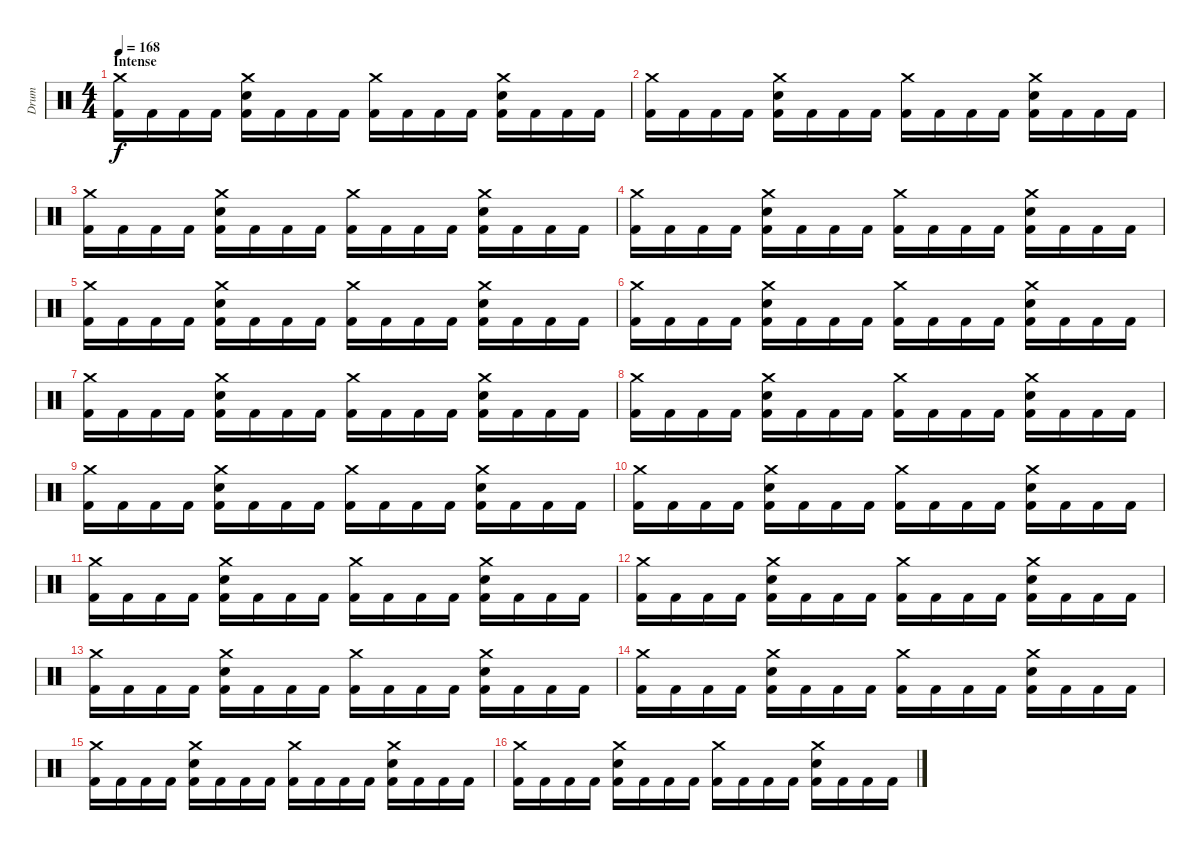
\track ("Drum" "Drum") {instrument percussion}
\staff {score}
\articulation defaults
\ts (4 4)
\section ("" "Intense")
\tempo 168
\clef neutral
\ks c
("Crash medium (hit)" "Kick (hit) 2").16{dy f} "Kick (hit) 2".16 "Kick (hit) 2".16 "Kick (hit) 2".16 ("Crash medium (hit)" "Electric Snare (hit)" "Kick (hit) 2").16 "Kick (hit) 2".16 "Kick (hit) 2".16 "Kick (hit) 2".16 ("Crash medium (hit)" "Kick (hit) 2").16 "Kick (hit) 2".16 "Kick (hit) 2".16 "Kick (hit) 2".16 ("Crash medium (hit)" "Electric Snare (hit)" "Kick (hit) 2").16 "Kick (hit) 2".16 "Kick (hit) 2".16 "Kick (hit) 2".16 |
("Crash medium (hit)" "Kick (hit) 2").16 "Kick (hit) 2".16 "Kick (hit) 2".16 "Kick (hit) 2".16 ("Crash medium (hit)" "Electric Snare (hit)" "Kick (hit) 2").16 "Kick (hit) 2".16 "Kick (hit) 2".16 "Kick (hit) 2".16 ("Crash medium (hit)" "Kick (hit) 2").16 "Kick (hit) 2".16 "Kick (hit) 2".16 "Kick (hit) 2".16 ("Crash medium (hit)" "Electric Snare (hit)" "Kick (hit) 2").16 "Kick (hit) 2".16 "Kick (hit) 2".16 "Kick (hit) 2".16 |
("Crash medium (hit)" "Kick (hit) 2").16 "Kick (hit) 2".16 "Kick (hit) 2".16 "Kick (hit) 2".16 ("Crash medium (hit)" "Electric Snare (hit)" "Kick (hit) 2").16 "Kick (hit) 2".16 "Kick (hit) 2".16 "Kick (hit) 2".16 ("Crash medium (hit)" "Kick (hit) 2").16 "Kick (hit) 2".16 "Kick (hit) 2".16 "Kick (hit) 2".16 ("Crash medium (hit)" "Electric Snare (hit)" "Kick (hit) 2").16 "Kick (hit) 2".16 "Kick (hit) 2".16 "Kick (hit) 2".16 |
("Crash medium (hit)" "Kick (hit) 2").16 "Kick (hit) 2".16 "Kick (hit) 2".16 "Kick (hit) 2".16 ("Crash medium (hit)" "Electric Snare (hit)" "Kick (hit) 2").16 "Kick (hit) 2".16 "Kick (hit) 2".16 "Kick (hit) 2".16 ("Crash medium (hit)" "Kick (hit) 2").16 "Kick (hit) 2".16 "Kick (hit) 2".16 "Kick (hit) 2".16 ("Crash medium (hit)" "Electric Snare (hit)" "Kick (hit) 2").16 "Kick (hit) 2".16 "Kick (hit) 2".16 "Kick (hit) 2".16 |
("Crash medium (hit)" "Kick (hit) 2").16 "Kick (hit) 2".16 "Kick (hit) 2".16 "Kick (hit) 2".16 ("Crash medium (hit)" "Electric Snare (hit)" "Kick (hit) 2").16 "Kick (hit) 2".16 "Kick (hit) 2".16 "Kick (hit) 2".16 ("Crash medium (hit)" "Kick (hit) 2").16 "Kick (hit) 2".16 "Kick (hit) 2".16 "Kick (hit) 2".16 ("Crash medium (hit)" "Electric Snare (hit)" "Kick (hit) 2").16 "Kick (hit) 2".16 "Kick (hit) 2".16 "Kick (hit) 2".16 |
("Crash medium (hit)" "Kick (hit) 2").16 "Kick (hit) 2".16 "Kick (hit) 2".16 "Kick (hit) 2".16 ("Crash medium (hit)" "Electric Snare (hit)" "Kick (hit) 2").16 "Kick (hit) 2".16 "Kick (hit) 2".16 "Kick (hit) 2".16 ("Crash medium (hit)" "Kick (hit) 2").16 "Kick (hit) 2".16 "Kick (hit) 2".16 "Kick (hit) 2".16 ("Crash medium (hit)" "Electric Snare (hit)" "Kick (hit) 2").16 "Kick (hit) 2".16 "Kick (hit) 2".16 "Kick (hit) 2".16 |
("Crash medium (hit)" "Kick (hit) 2").16 "Kick (hit) 2".16 "Kick (hit) 2".16 "Kick (hit) 2".16 ("Crash medium (hit)" "Electric Snare (hit)" "Kick (hit) 2").16 "Kick (hit) 2".16 "Kick (hit) 2".16 "Kick (hit) 2".16 ("Crash medium (hit)" "Kick (hit) 2").16 "Kick (hit) 2".16 "Kick (hit) 2".16 "Kick (hit) 2".16 ("Crash medium (hit)" "Electric Snare (hit)" "Kick (hit) 2").16 "Kick (hit) 2".16 "Kick (hit) 2".16 "Kick (hit) 2".16 |
("Crash medium (hit)" "Kick (hit) 2").16 "Kick (hit) 2".16 "Kick (hit) 2".16 "Kick (hit) 2".16 ("Crash medium (hit)" "Electric Snare (hit)" "Kick (hit) 2").16 "Kick (hit) 2".16 "Kick (hit) 2".16 "Kick (hit) 2".16 ("Crash medium (hit)" "Kick (hit) 2").16 "Kick (hit) 2".16 "Kick (hit) 2".16 "Kick (hit) 2".16 ("Crash medium (hit)" "Electric Snare (hit)" "Kick (hit) 2").16 "Kick (hit) 2".16 "Kick (hit) 2".16 "Kick (hit) 2".16 |
("Crash medium (hit)" "Kick (hit) 2").16 "Kick (hit) 2".16 "Kick (hit) 2".16 "Kick (hit) 2".16 ("Crash medium (hit)" "Electric Snare (hit)" "Kick (hit) 2").16 "Kick (hit) 2".16 "Kick (hit) 2".16 "Kick (hit) 2".16 ("Crash medium (hit)" "Kick (hit) 2").16 "Kick (hit) 2".16 "Kick (hit) 2".16 "Kick (hit) 2".16 ("Crash medium (hit)" "Electric Snare (hit)" "Kick (hit) 2").16 "Kick (hit) 2".16 "Kick (hit) 2".16 "Kick (hit) 2".16 |
("Crash medium (hit)" "Kick (hit) 2").16 "Kick (hit) 2".16 "Kick (hit) 2".16 "Kick (hit) 2".16 ("Crash medium (hit)" "Electric Snare (hit)" "Kick (hit) 2").16 "Kick (hit) 2".16 "Kick (hit) 2".16 "Kick (hit) 2".16 ("Crash medium (hit)" "Kick (hit) 2").16 "Kick (hit) 2".16 "Kick (hit) 2".16 "Kick (hit) 2".16 ("Crash medium (hit)" "Electric Snare (hit)" "Kick (hit) 2").16 "Kick (hit) 2".16 "Kick (hit) 2".16 "Kick (hit) 2".16 |
("Crash medium (hit)" "Kick (hit) 2").16 "Kick (hit) 2".16 "Kick (hit) 2".16 "Kick (hit) 2".16 ("Crash medium (hit)" "Electric Snare (hit)" "Kick (hit) 2").16 "Kick (hit) 2".16 "Kick (hit) 2".16 "Kick (hit) 2".16 ("Crash medium (hit)" "Kick (hit) 2").16 "Kick (hit) 2".16 "Kick (hit) 2".16 "Kick (hit) 2".16 ("Crash medium (hit)" "Electric Snare (hit)" "Kick (hit) 2").16 "Kick (hit) 2".16 "Kick (hit) 2".16 "Kick (hit) 2".16 |
("Crash medium (hit)" "Kick (hit) 2").16 "Kick (hit) 2".16 "Kick (hit) 2".16 "Kick (hit) 2".16 ("Crash medium (hit)" "Electric Snare (hit)" "Kick (hit) 2").16 "Kick (hit) 2".16 "Kick (hit) 2".16 "Kick (hit) 2".16 ("Crash medium (hit)" "Kick (hit) 2").16 "Kick (hit) 2".16 "Kick (hit) 2".16 "Kick (hit) 2".16 ("Crash medium (hit)" "Electric Snare (hit)" "Kick (hit) 2").16 "Kick (hit) 2".16 "Kick (hit) 2".16 "Kick (hit) 2".16 |
("Crash medium (hit)" "Kick (hit) 2").16 "Kick (hit) 2".16 "Kick (hit) 2".16 "Kick (hit) 2".16 ("Crash medium (hit)" "Electric Snare (hit)" "Kick (hit) 2").16 "Kick (hit) 2".16 "Kick (hit) 2".16 "Kick (hit) 2".16 ("Crash medium (hit)" "Kick (hit) 2").16 "Kick (hit) 2".16 "Kick (hit) 2".16 "Kick (hit) 2".16 ("Crash medium (hit)" "Electric Snare (hit)" "Kick (hit) 2").16 "Kick (hit) 2".16 "Kick (hit) 2".16 "Kick (hit) 2".16 |
("Crash medium (hit)" "Kick (hit) 2").16 "Kick (hit) 2".16 "Kick (hit) 2".16 "Kick (hit) 2".16 ("Crash medium (hit)" "Electric Snare (hit)" "Kick (hit) 2").16 "Kick (hit) 2".16 "Kick (hit) 2".16 "Kick (hit) 2".16 ("Crash medium (hit)" "Kick (hit) 2").16 "Kick (hit) 2".16 "Kick (hit) 2".16 "Kick (hit) 2".16 ("Crash medium (hit)" "Electric Snare (hit)" "Kick (hit) 2").16 "Kick (hit) 2".16 "Kick (hit) 2".16 "Kick (hit) 2".16 |
("Crash medium (hit)" "Kick (hit) 2").16 "Kick (hit) 2".16 "Kick (hit) 2".16 "Kick (hit) 2".16 ("Crash medium (hit)" "Electric Snare (hit)" "Kick (hit) 2").16 "Kick (hit) 2".16 "Kick (hit) 2".16 "Kick (hit) 2".16 ("Crash medium (hit)" "Kick (hit) 2").16 "Kick (hit) 2".16 "Kick (hit) 2".16 "Kick (hit) 2".16 ("Crash medium (hit)" "Electric Snare (hit)" "Kick (hit) 2").16 "Kick (hit) 2".16 "Kick (hit) 2".16 "Kick (hit) 2".16 |
("Crash medium (hit)" "Kick (hit) 2").16 "Kick (hit) 2".16 "Kick (hit) 2".16 "Kick (hit) 2".16 ("Crash medium (hit)" "Electric Snare (hit)" "Kick (hit) 2").16 "Kick (hit) 2".16 "Kick (hit) 2".16 "Kick (hit) 2".16 ("Crash medium (hit)" "Kick (hit) 2").16 "Kick (hit) 2".16 "Kick (hit) 2".16 "Kick (hit) 2".16 ("Crash medium (hit)" "Electric Snare (hit)" "Kick (hit) 2").16 "Kick (hit) 2".16 "Kick (hit) 2".16 "Kick (hit) 2".16
